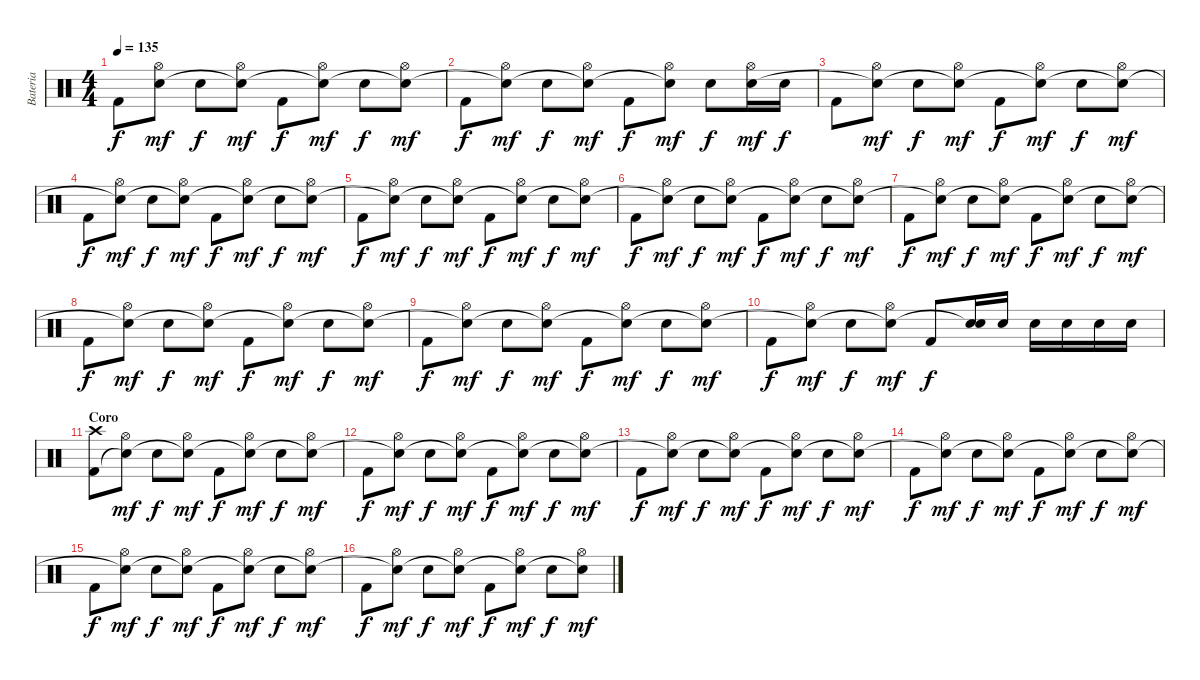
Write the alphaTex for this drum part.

\track ("Bateria" "Bateria") {instrument percussion}
\staff {score}
\articulation defaults
\ts (4 4)
\tempo 135
\clef neutral
\ks c "Kick (hit) 2".8{dy f}
("Hi-Hat (open)" "Snare (hit)"{t}).8{dy mf} "Electric Snare (hit)".8{dy f} ("Hi-Hat (open)" "Snare (hit)"{t}).8{dy mf} "Kick (hit) 2".8{dy f} ("Hi-Hat (open)" "Snare (hit)"{t}).8{dy mf} "Electric Snare (hit)".8{dy f} ("Hi-Hat (open)" "Snare (hit)"{t}).8{dy mf} |
"Kick (hit) 2".8{dy f} ("Hi-Hat (open)" "Snare (hit)"{t}).8{dy mf} "Electric Snare (hit)".8{dy f} ("Hi-Hat (open)" "Snare (hit)"{t}).8{dy mf} "Kick (hit) 2".8{dy f} ("Hi-Hat (open)" "Snare (hit)"{t}).8{dy mf} "Electric Snare (hit)".8{dy f} ("Hi-Hat (open)" "Electric Snare (hit)").16{dy mf} "Electric Snare (hit)".16{dy f} |
"Kick (hit) 2".8 ("Hi-Hat (open)" "Snare (hit)"{t}).8{dy mf} "Electric Snare (hit)".8{dy f} ("Hi-Hat (open)" "Snare (hit)"{t}).8{dy mf} "Kick (hit) 2".8{dy f} ("Hi-Hat (open)" "Snare (hit)"{t}).8{dy mf} "Electric Snare (hit)".8{dy f} ("Hi-Hat (open)" "Snare (hit)"{t}).8{dy mf} |
"Kick (hit) 2".8{dy f} ("Hi-Hat (open)" "Snare (hit)"{t}).8{dy mf} "Electric Snare (hit)".8{dy f} ("Hi-Hat (open)" "Snare (hit)"{t}).8{dy mf} "Kick (hit) 2".8{dy f} ("Hi-Hat (open)" "Snare (hit)"{t}).8{dy mf} "Electric Snare (hit)".8{dy f} ("Hi-Hat (open)" "Snare (hit)"{t}).8{dy mf} |
"Kick (hit) 2".8{dy f} ("Hi-Hat (open)" "Snare (hit)"{t}).8{dy mf} "Electric Snare (hit)".8{dy f} ("Hi-Hat (open)" "Snare (hit)"{t}).8{dy mf} "Kick (hit) 2".8{dy f} ("Hi-Hat (open)" "Snare (hit)"{t}).8{dy mf} "Electric Snare (hit)".8{dy f} ("Hi-Hat (open)" "Snare (hit)"{t}).8{dy mf} |
"Kick (hit) 2".8{dy f} ("Hi-Hat (open)" "Snare (hit)"{t}).8{dy mf} "Electric Snare (hit)".8{dy f} ("Hi-Hat (open)" "Snare (hit)"{t}).8{dy mf} "Kick (hit) 2".8{dy f} ("Hi-Hat (open)" "Snare (hit)"{t}).8{dy mf} "Electric Snare (hit)".8{dy f} ("Hi-Hat (open)" "Snare (hit)"{t}).8{dy mf} |
"Kick (hit) 2".8{dy f} ("Hi-Hat (open)" "Snare (hit)"{t}).8{dy mf} "Electric Snare (hit)".8{dy f} ("Hi-Hat (open)" "Snare (hit)"{t}).8{dy mf} "Kick (hit) 2".8{dy f} ("Hi-Hat (open)" "Snare (hit)"{t}).8{dy mf} "Electric Snare (hit)".8{dy f} ("Hi-Hat (open)" "Snare (hit)"{t}).8{dy mf} |
"Kick (hit) 2".8{dy f} ("Hi-Hat (open)" "Snare (hit)"{t}).8{dy mf} "Electric Snare (hit)".8{dy f} ("Hi-Hat (open)" "Snare (hit)"{t}).8{dy mf} "Kick (hit) 2".8{dy f} ("Hi-Hat (open)" "Snare (hit)"{t}).8{dy mf} "Electric Snare (hit)".8{dy f} ("Hi-Hat (open)" "Snare (hit)"{t}).8{dy mf} |
"Kick (hit) 2".8{dy f} ("Hi-Hat (open)" "Snare (hit)"{t}).8{dy mf} "Electric Snare (hit)".8{dy f} ("Hi-Hat (open)" "Snare (hit)"{t}).8{dy mf} "Kick (hit) 2".8{dy f} ("Hi-Hat (open)" "Snare (hit)"{t}).8{dy mf} "Electric Snare (hit)".8{dy f} ("Hi-Hat (open)" "Snare (hit)"{t}).8{dy mf} |
"Kick (hit) 2".8{dy f} ("Hi-Hat (open)" "Snare (hit)"{t}).8{dy mf} "Electric Snare (hit)".8{dy f} ("Hi-Hat (open)" "Snare (hit)"{t}).8{dy mf} "Kick (hit) 2".8{dy f} ("Electric Snare (hit)" "Snare (hit)"{t}).16 "Electric Snare (hit)".16 "Electric Snare (hit)".16 "Electric Snare (hit)".16 "Electric Snare (hit)".16 "Electric Snare (hit)".16 |
\section ("" "Coro")
("Crash high (hit)" "Kick (hit) 2").8 ("Hi-Hat (open)" "Snare (hit)"{t}).8{dy mf} "Electric Snare (hit)".8{dy f} ("Hi-Hat (open)" "Snare (hit)"{t}).8{dy mf} "Kick (hit) 2".8{dy f} ("Hi-Hat (open)" "Snare (hit)"{t}).8{dy mf} "Electric Snare (hit)".8{dy f} ("Hi-Hat (open)" "Snare (hit)"{t}).8{dy mf} |
"Kick (hit) 2".8{dy f} ("Hi-Hat (open)" "Snare (hit)"{t}).8{dy mf} "Electric Snare (hit)".8{dy f} ("Hi-Hat (open)" "Snare (hit)"{t}).8{dy mf} "Kick (hit) 2".8{dy f} ("Hi-Hat (open)" "Snare (hit)"{t}).8{dy mf} "Electric Snare (hit)".8{dy f} ("Hi-Hat (open)" "Snare (hit)"{t}).8{dy mf} |
"Kick (hit) 2".8{dy f} ("Hi-Hat (open)" "Snare (hit)"{t}).8{dy mf} "Electric Snare (hit)".8{dy f} ("Hi-Hat (open)" "Snare (hit)"{t}).8{dy mf} "Kick (hit) 2".8{dy f} ("Hi-Hat (open)" "Snare (hit)"{t}).8{dy mf} "Electric Snare (hit)".8{dy f} ("Hi-Hat (open)" "Snare (hit)"{t}).8{dy mf} |
"Kick (hit) 2".8{dy f} ("Hi-Hat (open)" "Snare (hit)"{t}).8{dy mf} "Electric Snare (hit)".8{dy f} ("Hi-Hat (open)" "Snare (hit)"{t}).8{dy mf} "Kick (hit) 2".8{dy f} ("Hi-Hat (open)" "Snare (hit)"{t}).8{dy mf} "Electric Snare (hit)".8{dy f} ("Hi-Hat (open)" "Snare (hit)"{t}).8{dy mf} |
"Kick (hit) 2".8{dy f} ("Hi-Hat (open)" "Snare (hit)"{t}).8{dy mf} "Electric Snare (hit)".8{dy f} ("Hi-Hat (open)" "Snare (hit)"{t}).8{dy mf} "Kick (hit) 2".8{dy f} ("Hi-Hat (open)" "Snare (hit)"{t}).8{dy mf} "Electric Snare (hit)".8{dy f} ("Hi-Hat (open)" "Snare (hit)"{t}).8{dy mf} |
"Kick (hit) 2".8{dy f} ("Hi-Hat (open)" "Snare (hit)"{t}).8{dy mf} "Electric Snare (hit)".8{dy f} ("Hi-Hat (open)" "Snare (hit)"{t}).8{dy mf} "Kick (hit) 2".8{dy f} ("Hi-Hat (open)" "Snare (hit)"{t}).8{dy mf} "Electric Snare (hit)".8{dy f} ("Hi-Hat (open)" "Snare (hit)"{t}).8{dy mf}
